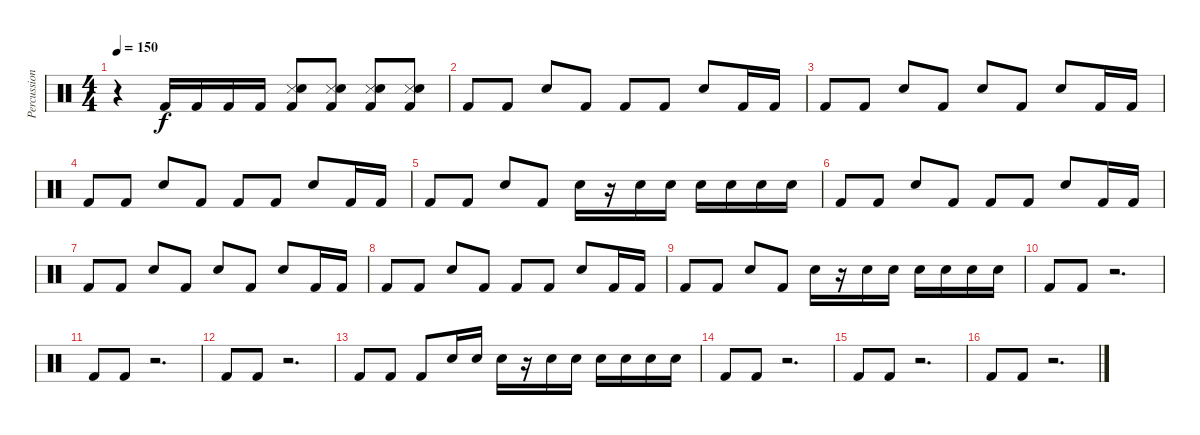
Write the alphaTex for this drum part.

\track ("Percussions" "Percussion") {instrument percussion}
\staff {score}
\articulation defaults
\ts (4 4)
\tempo 150
\clef neutral
\ks c
r.4{dy f} "Kick (hit) 2".16 "Kick (hit) 2".16 "Kick (hit) 2".16 "Kick (hit) 2".16 ("Snare (side stick) 3" "Kick (hit) 2" "Electric Snare (hit)").8 ("Snare (side stick) 3" "Kick (hit) 2" "Electric Snare (hit)").8 ("Snare (side stick) 3" "Kick (hit) 2" "Electric Snare (hit)").8 ("Snare (side stick) 3" "Electric Snare (hit)" "Kick (hit) 2").8 |
"Kick (hit) 2".8 "Kick (hit) 2".8 "Electric Snare (hit)".8 "Kick (hit) 2".8 "Kick (hit) 2".8 "Kick (hit) 2".8 "Electric Snare (hit)".8 "Kick (hit) 2".16 "Kick (hit) 2".16 |
"Kick (hit) 2".8 "Kick (hit) 2".8 "Electric Snare (hit)".8 "Kick (hit) 2".8 "Snare (hit) 2".8 "Kick (hit) 2".8 "Electric Snare (hit)".8 "Kick (hit) 2".16 "Kick (hit) 2".16 |
"Kick (hit) 2".8 "Kick (hit) 2".8 "Electric Snare (hit)".8 "Kick (hit) 2".8 "Kick (hit) 2".8 "Kick (hit) 2".8 "Electric Snare (hit)".8 "Kick (hit) 2".16 "Kick (hit) 2".16 |
"Kick (hit) 2".8 "Kick (hit) 2".8 "Electric Snare (hit)".8 "Kick (hit) 2".8 "Snare (hit) 2".16 r.16 "Snare (hit) 2".16 "Snare (hit) 2".16 "Snare (hit) 2".16 "Snare (hit) 2".16 "Snare (hit) 2".16 "Snare (hit) 2".16 |
"Kick (hit) 2".8 "Kick (hit) 2".8 "Electric Snare (hit)".8 "Kick (hit) 2".8 "Kick (hit) 2".8 "Kick (hit) 2".8 "Electric Snare (hit)".8 "Kick (hit) 2".16 "Kick (hit) 2".16 |
"Kick (hit) 2".8 "Kick (hit) 2".8 "Electric Snare (hit)".8 "Kick (hit) 2".8 "Snare (hit) 2".8 "Kick (hit) 2".8 "Electric Snare (hit)".8 "Kick (hit) 2".16 "Kick (hit) 2".16 |
"Kick (hit) 2".8 "Kick (hit) 2".8 "Electric Snare (hit)".8 "Kick (hit) 2".8 "Kick (hit) 2".8 "Kick (hit) 2".8 "Electric Snare (hit)".8 "Kick (hit) 2".16 "Kick (hit) 2".16 |
"Kick (hit) 2".8 "Kick (hit) 2".8 "Electric Snare (hit)".8 "Kick (hit) 2".8 "Snare (hit) 2".16 r.16 "Snare (hit) 2".16 "Snare (hit) 2".16 "Snare (hit) 2".16 "Snare (hit) 2".16 "Snare (hit) 2".16 "Snare (hit) 2".16 |
"Kick (hit) 2".8 "Kick (hit) 2".8 r.2{d} |
"Kick (hit) 2".8 "Kick (hit) 2".8 r.2{d} |
"Kick (hit) 2".8 "Kick (hit) 2".8 r.2{d} |
"Kick (hit) 2".8 "Kick (hit) 2".8 "Kick (hit) 2".8 "Snare (hit) 2".16 "Snare (hit) 2".16 "Snare (hit) 2".16 r.16 "Snare (hit) 2".16 "Snare (hit) 2".16 "Snare (hit) 2".16 "Snare (hit) 2".16 "Snare (hit) 2".16 "Snare (hit) 2".16 |
"Kick (hit) 2".8 "Kick (hit) 2".8 r.2{d} |
"Kick (hit) 2".8 "Kick (hit) 2".8 r.2{d} |
"Kick (hit) 2".8 "Kick (hit) 2".8 r.2{d}
